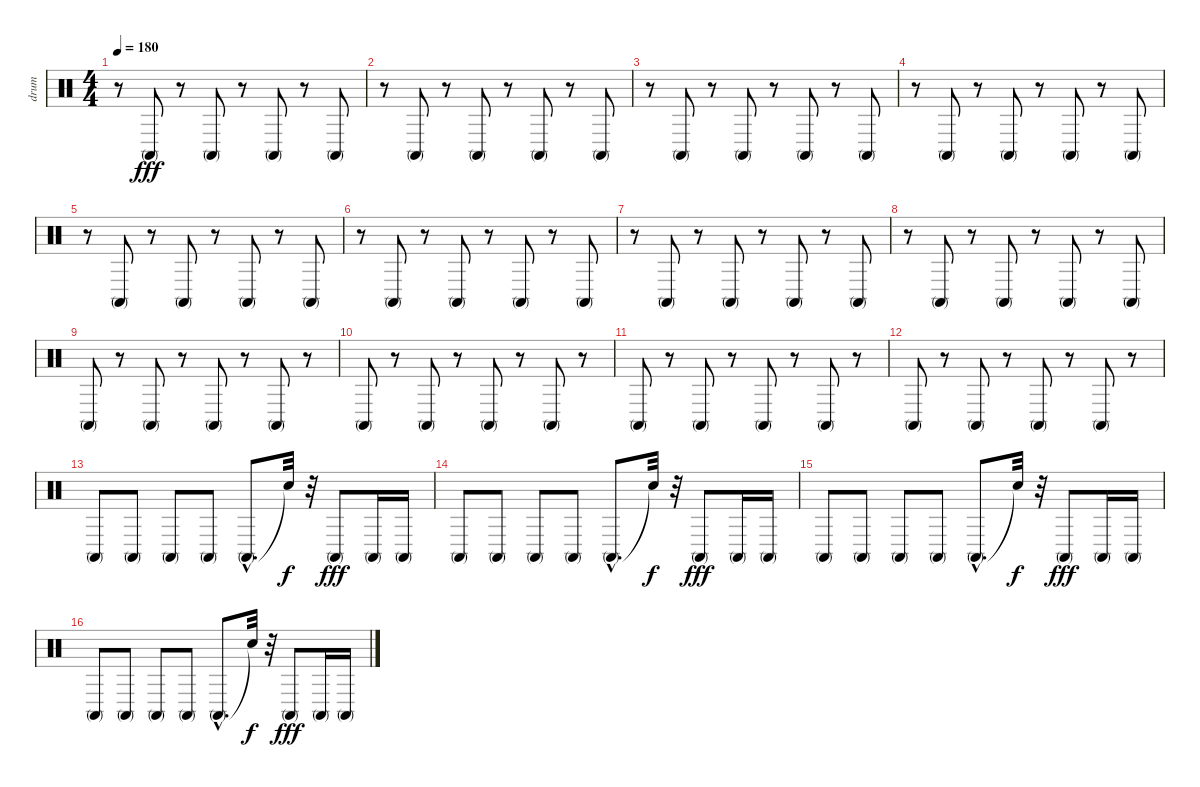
\track ("drum" "drum") {instrument percussion}
\staff {score}
\articulation defaults
\ts (4 4)
\tempo 180
\clef neutral
\ks c
r.8{dy fff} "Conga high (mute)".8 r.8 "Conga high (mute)".8 r.8 "Conga high (mute)".8 r.8 "Conga high (mute)".8 |
r.8 "Conga high (mute)".8 r.8 "Conga high (mute)".8 r.8 "Conga high (mute)".8 r.8 "Conga high (mute)".8 |
r.8 "Conga high (mute)".8 r.8 "Conga high (mute)".8 r.8 "Conga high (mute)".8 r.8 "Conga high (mute)".8 |
r.8 "Conga high (mute)".8 r.8 "Conga high (mute)".8 r.8 "Conga high (mute)".8 r.8 "Conga high (mute)".8 |
r.8 "Conga high (mute)".8 r.8 "Conga high (mute)".8 r.8 "Conga high (mute)".8 r.8 "Conga high (mute)".8 |
r.8 "Conga high (mute)".8 r.8 "Conga high (mute)".8 r.8 "Conga high (mute)".8 r.8 "Conga high (mute)".8 |
r.8 "Conga high (mute)".8 r.8 "Conga high (mute)".8 r.8 "Conga high (mute)".8 r.8 "Conga high (mute)".8 |
r.8 "Conga high (mute)".8 r.8 "Conga high (mute)".8 r.8 "Conga high (mute)".8 r.8 "Conga high (mute)".8 |
"Conga high (mute)".8 r.8 "Conga high (mute)".8 r.8 "Conga high (mute)".8 r.8 "Conga high (mute)".8 r.8 |
"Conga high (mute)".8 r.8 "Conga high (mute)".8 r.8 "Conga high (mute)".8 r.8 "Conga high (mute)".8 r.8 |
"Conga high (mute)".8 r.8 "Conga high (mute)".8 r.8 "Conga high (mute)".8 r.8 "Conga high (mute)".8 r.8 |
"Conga high (mute)".8 r.8 "Conga high (mute)".8 r.8 "Conga high (mute)".8 r.8 "Conga high (mute)".8 r.8 |
"Conga high (mute)".8 "Conga high (mute)".8 "Conga high (mute)".8 "Conga high (mute)".8 "Conga high (mute)"{hac}.8{d} "Snare (hit)"{t}.32{dy f} r.32 "Conga high (mute)".8{dy fff} "Conga high (mute)".16 "Conga high (mute)".16 |
"Conga high (mute)".8 "Conga high (mute)".8 "Conga high (mute)".8 "Conga high (mute)".8 "Conga high (mute)"{hac}.8{d} "Snare (hit)"{t}.32{dy f} r.32 "Conga high (mute)".8{dy fff} "Conga high (mute)".16 "Conga high (mute)".16 |
"Conga high (mute)".8 "Conga high (mute)".8 "Conga high (mute)".8 "Conga high (mute)".8 "Conga high (mute)"{hac}.8{d} "Snare (hit)"{t}.32{dy f} r.32 "Conga high (mute)".8{dy fff} "Conga high (mute)".16 "Conga high (mute)".16 |
"Conga high (mute)".8 "Conga high (mute)".8 "Conga high (mute)".8 "Conga high (mute)".8 "Conga high (mute)"{hac}.8{d} "Snare (hit)"{t}.32{dy f} r.32 "Conga high (mute)".8{dy fff} "Conga high (mute)".16 "Conga high (mute)".16
